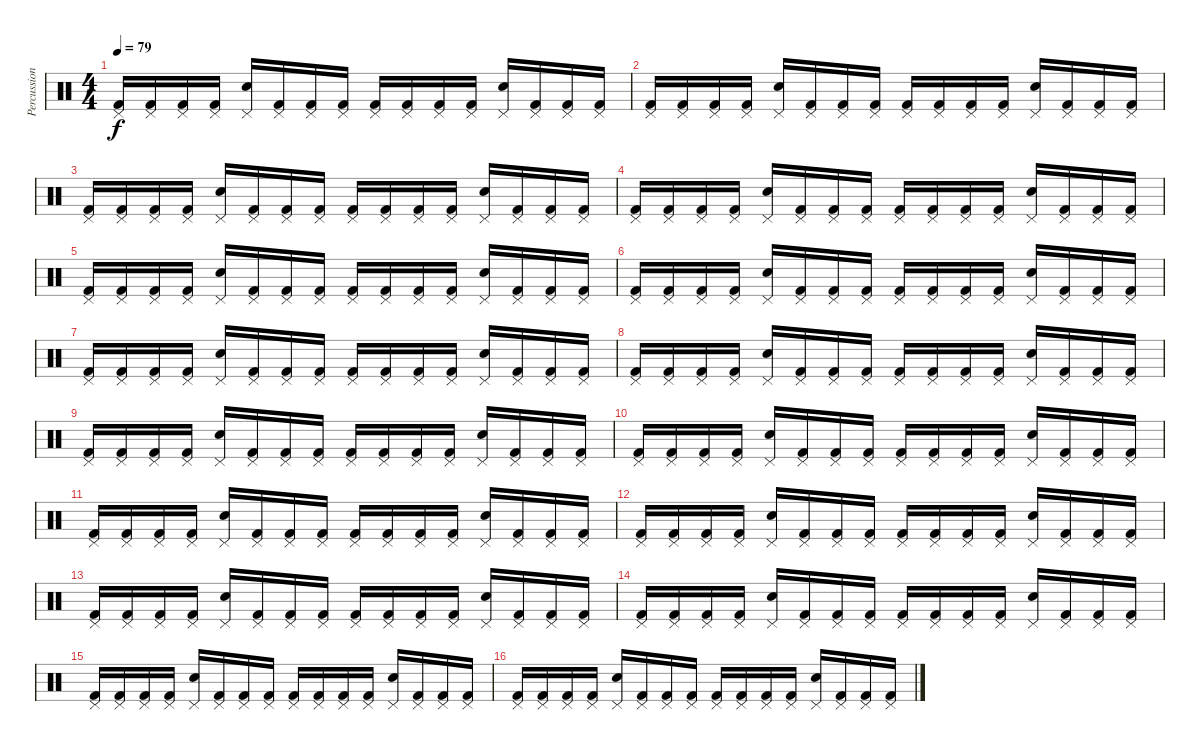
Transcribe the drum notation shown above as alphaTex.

\track ("Percussion" "Percussion") {instrument percussion}
\staff {score}
\articulation defaults
\ts (4 4)
\tempo 79
\clef neutral
\ks c
("Pedal Hi-Hat (hit)" "Kick (hit) 2").16{dy f} ("Pedal Hi-Hat (hit)" "Kick (hit) 2").16 ("Pedal Hi-Hat (hit)" "Kick (hit) 2").16 ("Pedal Hi-Hat (hit)" "Kick (hit) 2").16 ("Pedal Hi-Hat (hit)" "Electric Snare (hit)").16 ("Pedal Hi-Hat (hit)" "Kick (hit) 2").16 ("Pedal Hi-Hat (hit)" "Kick (hit) 2").16 ("Pedal Hi-Hat (hit)" "Kick (hit) 2").16 ("Pedal Hi-Hat (hit)" "Kick (hit) 2").16 ("Pedal Hi-Hat (hit)" "Kick (hit) 2").16 ("Pedal Hi-Hat (hit)" "Kick (hit) 2").16 ("Pedal Hi-Hat (hit)" "Kick (hit) 2").16 ("Pedal Hi-Hat (hit)" "Electric Snare (hit)").16 ("Pedal Hi-Hat (hit)" "Kick (hit) 2").16 ("Pedal Hi-Hat (hit)" "Kick (hit) 2").16 ("Pedal Hi-Hat (hit)" "Kick (hit) 2").16 |
("Pedal Hi-Hat (hit)" "Kick (hit) 2").16 ("Pedal Hi-Hat (hit)" "Kick (hit) 2").16 ("Pedal Hi-Hat (hit)" "Kick (hit) 2").16 ("Pedal Hi-Hat (hit)" "Kick (hit) 2").16 ("Pedal Hi-Hat (hit)" "Electric Snare (hit)").16 ("Pedal Hi-Hat (hit)" "Kick (hit) 2").16 ("Pedal Hi-Hat (hit)" "Kick (hit) 2").16 ("Pedal Hi-Hat (hit)" "Kick (hit) 2").16 ("Pedal Hi-Hat (hit)" "Kick (hit) 2").16 ("Pedal Hi-Hat (hit)" "Kick (hit) 2").16 ("Pedal Hi-Hat (hit)" "Kick (hit) 2").16 ("Pedal Hi-Hat (hit)" "Kick (hit) 2").16 ("Pedal Hi-Hat (hit)" "Electric Snare (hit)").16 ("Pedal Hi-Hat (hit)" "Kick (hit) 2").16 ("Pedal Hi-Hat (hit)" "Kick (hit) 2").16 ("Pedal Hi-Hat (hit)" "Kick (hit) 2").16 |
("Pedal Hi-Hat (hit)" "Kick (hit) 2").16 ("Pedal Hi-Hat (hit)" "Kick (hit) 2").16 ("Pedal Hi-Hat (hit)" "Kick (hit) 2").16 ("Pedal Hi-Hat (hit)" "Kick (hit) 2").16 ("Pedal Hi-Hat (hit)" "Electric Snare (hit)").16 ("Pedal Hi-Hat (hit)" "Kick (hit) 2").16 ("Pedal Hi-Hat (hit)" "Kick (hit) 2").16 ("Pedal Hi-Hat (hit)" "Kick (hit) 2").16 ("Pedal Hi-Hat (hit)" "Kick (hit) 2").16 ("Pedal Hi-Hat (hit)" "Kick (hit) 2").16 ("Pedal Hi-Hat (hit)" "Kick (hit) 2").16 ("Pedal Hi-Hat (hit)" "Kick (hit) 2").16 ("Pedal Hi-Hat (hit)" "Electric Snare (hit)").16 ("Pedal Hi-Hat (hit)" "Kick (hit) 2").16 ("Pedal Hi-Hat (hit)" "Kick (hit) 2").16 ("Pedal Hi-Hat (hit)" "Kick (hit) 2").16 |
("Pedal Hi-Hat (hit)" "Kick (hit) 2").16 ("Pedal Hi-Hat (hit)" "Kick (hit) 2").16 ("Pedal Hi-Hat (hit)" "Kick (hit) 2").16 ("Pedal Hi-Hat (hit)" "Kick (hit) 2").16 ("Pedal Hi-Hat (hit)" "Electric Snare (hit)").16 ("Pedal Hi-Hat (hit)" "Kick (hit) 2").16 ("Pedal Hi-Hat (hit)" "Kick (hit) 2").16 ("Pedal Hi-Hat (hit)" "Kick (hit) 2").16 ("Pedal Hi-Hat (hit)" "Kick (hit) 2").16 ("Pedal Hi-Hat (hit)" "Kick (hit) 2").16 ("Pedal Hi-Hat (hit)" "Kick (hit) 2").16 ("Pedal Hi-Hat (hit)" "Kick (hit) 2").16 ("Pedal Hi-Hat (hit)" "Electric Snare (hit)").16 ("Pedal Hi-Hat (hit)" "Kick (hit) 2").16 ("Pedal Hi-Hat (hit)" "Kick (hit) 2").16 ("Pedal Hi-Hat (hit)" "Kick (hit) 2").16 |
("Pedal Hi-Hat (hit)" "Kick (hit) 2").16 ("Pedal Hi-Hat (hit)" "Kick (hit) 2").16 ("Pedal Hi-Hat (hit)" "Kick (hit) 2").16 ("Pedal Hi-Hat (hit)" "Kick (hit) 2").16 ("Pedal Hi-Hat (hit)" "Electric Snare (hit)").16 ("Pedal Hi-Hat (hit)" "Kick (hit) 2").16 ("Pedal Hi-Hat (hit)" "Kick (hit) 2").16 ("Pedal Hi-Hat (hit)" "Kick (hit) 2").16 ("Pedal Hi-Hat (hit)" "Kick (hit) 2").16 ("Pedal Hi-Hat (hit)" "Kick (hit) 2").16 ("Pedal Hi-Hat (hit)" "Kick (hit) 2").16 ("Pedal Hi-Hat (hit)" "Kick (hit) 2").16 ("Pedal Hi-Hat (hit)" "Electric Snare (hit)").16 ("Pedal Hi-Hat (hit)" "Kick (hit) 2").16 ("Pedal Hi-Hat (hit)" "Kick (hit) 2").16 ("Pedal Hi-Hat (hit)" "Kick (hit) 2").16 |
("Pedal Hi-Hat (hit)" "Kick (hit) 2").16 ("Pedal Hi-Hat (hit)" "Kick (hit) 2").16 ("Pedal Hi-Hat (hit)" "Kick (hit) 2").16 ("Pedal Hi-Hat (hit)" "Kick (hit) 2").16 ("Pedal Hi-Hat (hit)" "Electric Snare (hit)").16 ("Pedal Hi-Hat (hit)" "Kick (hit) 2").16 ("Pedal Hi-Hat (hit)" "Kick (hit) 2").16 ("Pedal Hi-Hat (hit)" "Kick (hit) 2").16 ("Pedal Hi-Hat (hit)" "Kick (hit) 2").16 ("Pedal Hi-Hat (hit)" "Kick (hit) 2").16 ("Pedal Hi-Hat (hit)" "Kick (hit) 2").16 ("Pedal Hi-Hat (hit)" "Kick (hit) 2").16 ("Pedal Hi-Hat (hit)" "Electric Snare (hit)").16 ("Pedal Hi-Hat (hit)" "Kick (hit) 2").16 ("Pedal Hi-Hat (hit)" "Kick (hit) 2").16 ("Pedal Hi-Hat (hit)" "Kick (hit) 2").16 |
("Pedal Hi-Hat (hit)" "Kick (hit) 2").16 ("Pedal Hi-Hat (hit)" "Kick (hit) 2").16 ("Pedal Hi-Hat (hit)" "Kick (hit) 2").16 ("Pedal Hi-Hat (hit)" "Kick (hit) 2").16 ("Pedal Hi-Hat (hit)" "Electric Snare (hit)").16 ("Pedal Hi-Hat (hit)" "Kick (hit) 2").16 ("Pedal Hi-Hat (hit)" "Kick (hit) 2").16 ("Pedal Hi-Hat (hit)" "Kick (hit) 2").16 ("Pedal Hi-Hat (hit)" "Kick (hit) 2").16 ("Pedal Hi-Hat (hit)" "Kick (hit) 2").16 ("Pedal Hi-Hat (hit)" "Kick (hit) 2").16 ("Pedal Hi-Hat (hit)" "Kick (hit) 2").16 ("Pedal Hi-Hat (hit)" "Electric Snare (hit)").16 ("Pedal Hi-Hat (hit)" "Kick (hit) 2").16 ("Pedal Hi-Hat (hit)" "Kick (hit) 2").16 ("Pedal Hi-Hat (hit)" "Kick (hit) 2").16 |
("Pedal Hi-Hat (hit)" "Kick (hit) 2").16 ("Pedal Hi-Hat (hit)" "Kick (hit) 2").16 ("Pedal Hi-Hat (hit)" "Kick (hit) 2").16 ("Pedal Hi-Hat (hit)" "Kick (hit) 2").16 ("Pedal Hi-Hat (hit)" "Electric Snare (hit)").16 ("Pedal Hi-Hat (hit)" "Kick (hit) 2").16 ("Pedal Hi-Hat (hit)" "Kick (hit) 2").16 ("Pedal Hi-Hat (hit)" "Kick (hit) 2").16 ("Pedal Hi-Hat (hit)" "Kick (hit) 2").16 ("Pedal Hi-Hat (hit)" "Kick (hit) 2").16 ("Pedal Hi-Hat (hit)" "Kick (hit) 2").16 ("Pedal Hi-Hat (hit)" "Kick (hit) 2").16 ("Pedal Hi-Hat (hit)" "Electric Snare (hit)").16 ("Pedal Hi-Hat (hit)" "Kick (hit) 2").16 ("Pedal Hi-Hat (hit)" "Kick (hit) 2").16 ("Pedal Hi-Hat (hit)" "Kick (hit) 2").16 |
("Pedal Hi-Hat (hit)" "Kick (hit) 2").16 ("Pedal Hi-Hat (hit)" "Kick (hit) 2").16 ("Pedal Hi-Hat (hit)" "Kick (hit) 2").16 ("Pedal Hi-Hat (hit)" "Kick (hit) 2").16 ("Pedal Hi-Hat (hit)" "Electric Snare (hit)").16 ("Pedal Hi-Hat (hit)" "Kick (hit) 2").16 ("Pedal Hi-Hat (hit)" "Kick (hit) 2").16 ("Pedal Hi-Hat (hit)" "Kick (hit) 2").16 ("Pedal Hi-Hat (hit)" "Kick (hit) 2").16 ("Pedal Hi-Hat (hit)" "Kick (hit) 2").16 ("Pedal Hi-Hat (hit)" "Kick (hit) 2").16 ("Pedal Hi-Hat (hit)" "Kick (hit) 2").16 ("Pedal Hi-Hat (hit)" "Electric Snare (hit)").16 ("Pedal Hi-Hat (hit)" "Kick (hit) 2").16 ("Pedal Hi-Hat (hit)" "Kick (hit) 2").16 ("Pedal Hi-Hat (hit)" "Kick (hit) 2").16 |
("Pedal Hi-Hat (hit)" "Kick (hit) 2").16 ("Pedal Hi-Hat (hit)" "Kick (hit) 2").16 ("Pedal Hi-Hat (hit)" "Kick (hit) 2").16 ("Pedal Hi-Hat (hit)" "Kick (hit) 2").16 ("Pedal Hi-Hat (hit)" "Electric Snare (hit)").16 ("Pedal Hi-Hat (hit)" "Kick (hit) 2").16 ("Pedal Hi-Hat (hit)" "Kick (hit) 2").16 ("Pedal Hi-Hat (hit)" "Kick (hit) 2").16 ("Pedal Hi-Hat (hit)" "Kick (hit) 2").16 ("Pedal Hi-Hat (hit)" "Kick (hit) 2").16 ("Pedal Hi-Hat (hit)" "Kick (hit) 2").16 ("Pedal Hi-Hat (hit)" "Kick (hit) 2").16 ("Pedal Hi-Hat (hit)" "Electric Snare (hit)").16 ("Pedal Hi-Hat (hit)" "Kick (hit) 2").16 ("Pedal Hi-Hat (hit)" "Kick (hit) 2").16 ("Pedal Hi-Hat (hit)" "Kick (hit) 2").16 |
("Pedal Hi-Hat (hit)" "Kick (hit) 2").16 ("Pedal Hi-Hat (hit)" "Kick (hit) 2").16 ("Pedal Hi-Hat (hit)" "Kick (hit) 2").16 ("Pedal Hi-Hat (hit)" "Kick (hit) 2").16 ("Pedal Hi-Hat (hit)" "Electric Snare (hit)").16 ("Pedal Hi-Hat (hit)" "Kick (hit) 2").16 ("Pedal Hi-Hat (hit)" "Kick (hit) 2").16 ("Pedal Hi-Hat (hit)" "Kick (hit) 2").16 ("Pedal Hi-Hat (hit)" "Kick (hit) 2").16 ("Pedal Hi-Hat (hit)" "Kick (hit) 2").16 ("Pedal Hi-Hat (hit)" "Kick (hit) 2").16 ("Pedal Hi-Hat (hit)" "Kick (hit) 2").16 ("Pedal Hi-Hat (hit)" "Electric Snare (hit)").16 ("Pedal Hi-Hat (hit)" "Kick (hit) 2").16 ("Pedal Hi-Hat (hit)" "Kick (hit) 2").16 ("Pedal Hi-Hat (hit)" "Kick (hit) 2").16 |
("Pedal Hi-Hat (hit)" "Kick (hit) 2").16 ("Pedal Hi-Hat (hit)" "Kick (hit) 2").16 ("Pedal Hi-Hat (hit)" "Kick (hit) 2").16 ("Pedal Hi-Hat (hit)" "Kick (hit) 2").16 ("Pedal Hi-Hat (hit)" "Electric Snare (hit)").16 ("Pedal Hi-Hat (hit)" "Kick (hit) 2").16 ("Pedal Hi-Hat (hit)" "Kick (hit) 2").16 ("Pedal Hi-Hat (hit)" "Kick (hit) 2").16 ("Pedal Hi-Hat (hit)" "Kick (hit) 2").16 ("Pedal Hi-Hat (hit)" "Kick (hit) 2").16 ("Pedal Hi-Hat (hit)" "Kick (hit) 2").16 ("Pedal Hi-Hat (hit)" "Kick (hit) 2").16 ("Pedal Hi-Hat (hit)" "Electric Snare (hit)").16 ("Pedal Hi-Hat (hit)" "Kick (hit) 2").16 ("Pedal Hi-Hat (hit)" "Kick (hit) 2").16 ("Pedal Hi-Hat (hit)" "Kick (hit) 2").16 |
("Pedal Hi-Hat (hit)" "Kick (hit) 2").16 ("Pedal Hi-Hat (hit)" "Kick (hit) 2").16 ("Pedal Hi-Hat (hit)" "Kick (hit) 2").16 ("Pedal Hi-Hat (hit)" "Kick (hit) 2").16 ("Pedal Hi-Hat (hit)" "Electric Snare (hit)").16 ("Pedal Hi-Hat (hit)" "Kick (hit) 2").16 ("Pedal Hi-Hat (hit)" "Kick (hit) 2").16 ("Pedal Hi-Hat (hit)" "Kick (hit) 2").16 ("Pedal Hi-Hat (hit)" "Kick (hit) 2").16 ("Pedal Hi-Hat (hit)" "Kick (hit) 2").16 ("Pedal Hi-Hat (hit)" "Kick (hit) 2").16 ("Pedal Hi-Hat (hit)" "Kick (hit) 2").16 ("Pedal Hi-Hat (hit)" "Electric Snare (hit)").16 ("Pedal Hi-Hat (hit)" "Kick (hit) 2").16 ("Pedal Hi-Hat (hit)" "Kick (hit) 2").16 ("Pedal Hi-Hat (hit)" "Kick (hit) 2").16 |
("Pedal Hi-Hat (hit)" "Kick (hit) 2").16 ("Pedal Hi-Hat (hit)" "Kick (hit) 2").16 ("Pedal Hi-Hat (hit)" "Kick (hit) 2").16 ("Pedal Hi-Hat (hit)" "Kick (hit) 2").16 ("Pedal Hi-Hat (hit)" "Electric Snare (hit)").16 ("Pedal Hi-Hat (hit)" "Kick (hit) 2").16 ("Pedal Hi-Hat (hit)" "Kick (hit) 2").16 ("Pedal Hi-Hat (hit)" "Kick (hit) 2").16 ("Pedal Hi-Hat (hit)" "Kick (hit) 2").16 ("Pedal Hi-Hat (hit)" "Kick (hit) 2").16 ("Pedal Hi-Hat (hit)" "Kick (hit) 2").16 ("Pedal Hi-Hat (hit)" "Kick (hit) 2").16 ("Pedal Hi-Hat (hit)" "Electric Snare (hit)").16 ("Pedal Hi-Hat (hit)" "Kick (hit) 2").16 ("Pedal Hi-Hat (hit)" "Kick (hit) 2").16 ("Pedal Hi-Hat (hit)" "Kick (hit) 2").16 |
("Pedal Hi-Hat (hit)" "Kick (hit) 2").16 ("Pedal Hi-Hat (hit)" "Kick (hit) 2").16 ("Pedal Hi-Hat (hit)" "Kick (hit) 2").16 ("Pedal Hi-Hat (hit)" "Kick (hit) 2").16 ("Pedal Hi-Hat (hit)" "Electric Snare (hit)").16 ("Pedal Hi-Hat (hit)" "Kick (hit) 2").16 ("Pedal Hi-Hat (hit)" "Kick (hit) 2").16 ("Pedal Hi-Hat (hit)" "Kick (hit) 2").16 ("Pedal Hi-Hat (hit)" "Kick (hit) 2").16 ("Pedal Hi-Hat (hit)" "Kick (hit) 2").16 ("Pedal Hi-Hat (hit)" "Kick (hit) 2").16 ("Pedal Hi-Hat (hit)" "Kick (hit) 2").16 ("Pedal Hi-Hat (hit)" "Electric Snare (hit)").16 ("Pedal Hi-Hat (hit)" "Kick (hit) 2").16 ("Pedal Hi-Hat (hit)" "Kick (hit) 2").16 ("Pedal Hi-Hat (hit)" "Kick (hit) 2").16 |
("Pedal Hi-Hat (hit)" "Kick (hit) 2").16 ("Pedal Hi-Hat (hit)" "Kick (hit) 2").16 ("Pedal Hi-Hat (hit)" "Kick (hit) 2").16 ("Pedal Hi-Hat (hit)" "Kick (hit) 2").16 ("Pedal Hi-Hat (hit)" "Electric Snare (hit)").16 ("Pedal Hi-Hat (hit)" "Kick (hit) 2").16 ("Pedal Hi-Hat (hit)" "Kick (hit) 2").16 ("Pedal Hi-Hat (hit)" "Kick (hit) 2").16 ("Pedal Hi-Hat (hit)" "Kick (hit) 2").16 ("Pedal Hi-Hat (hit)" "Kick (hit) 2").16 ("Pedal Hi-Hat (hit)" "Kick (hit) 2").16 ("Pedal Hi-Hat (hit)" "Kick (hit) 2").16 ("Pedal Hi-Hat (hit)" "Electric Snare (hit)").16 ("Pedal Hi-Hat (hit)" "Kick (hit) 2").16 ("Pedal Hi-Hat (hit)" "Kick (hit) 2").16 ("Pedal Hi-Hat (hit)" "Kick (hit) 2").16
